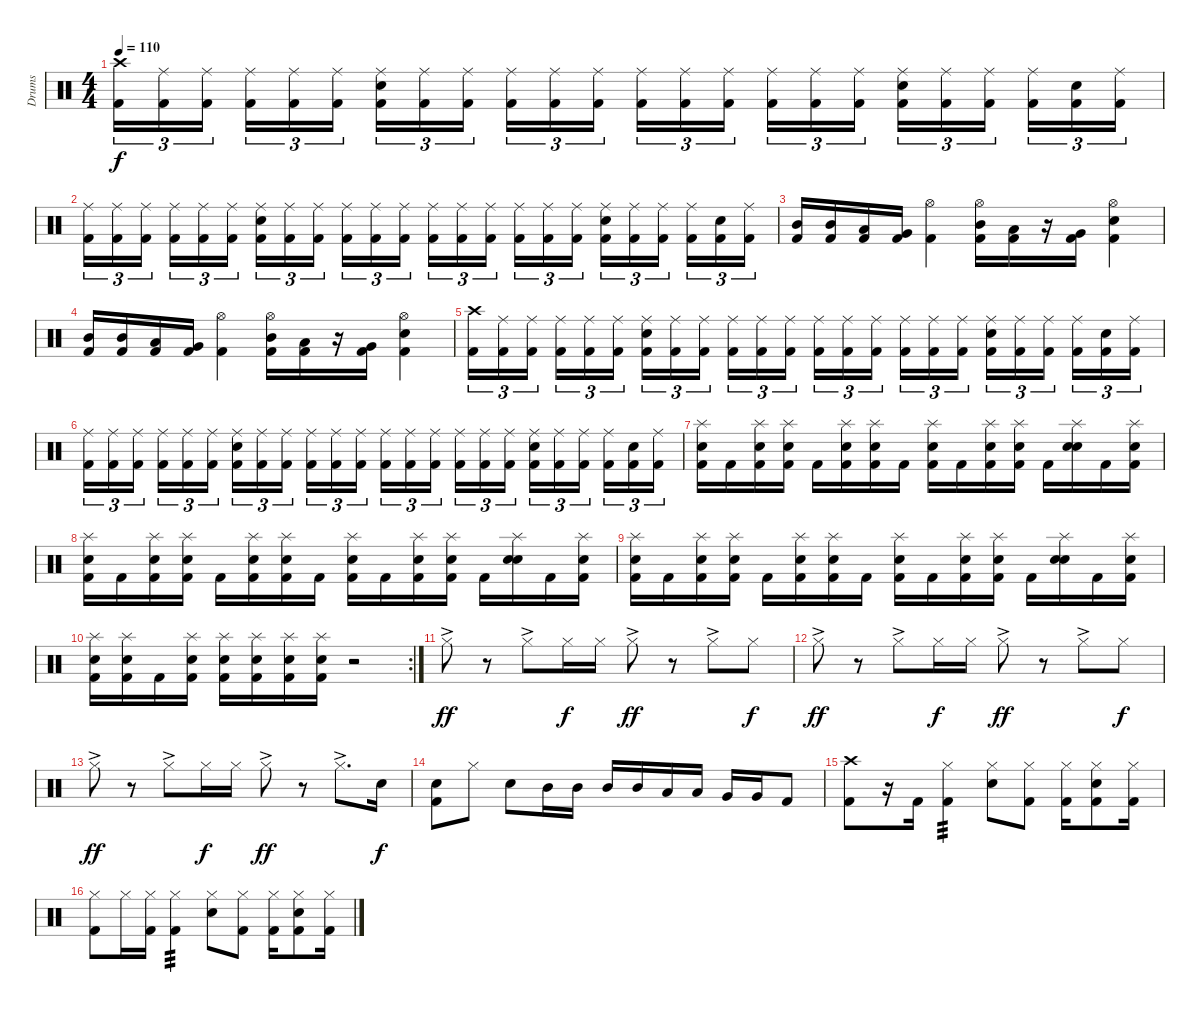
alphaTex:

\track ("Drums" "Drums") {instrument percussion}
\staff {score}
\articulation defaults
\ts (4 4)
\tempo 110
\clef neutral
\ks c
("Crash high (hit)" "Kick (hit) 2").16{tu (3 2) dy f} ("Ride (middle)" "Kick (hit) 2").16{tu (3 2)} ("Ride (middle)" "Kick (hit) 2").16{tu (3 2) beam splitsecondary} ("Ride (middle)" "Kick (hit) 2").16{tu (3 2)} ("Ride (middle)" "Kick (hit) 2").16{tu (3 2)} ("Ride (middle)" "Kick (hit) 2").16{tu (3 2)} ("Ride (middle)" "Snare (hit) 2" "Kick (hit) 2").16{tu (3 2)} ("Ride (middle)" "Kick (hit) 2").16{tu (3 2)} ("Ride (middle)" "Kick (hit) 2").16{tu (3 2) beam splitsecondary} ("Ride (middle)" "Kick (hit) 2").16{tu (3 2)} ("Ride (middle)" "Kick (hit) 2").16{tu (3 2)} ("Ride (middle)" "Kick (hit) 2").16{tu (3 2)} ("Ride (middle)" "Kick (hit) 2").16{tu (3 2)} ("Ride (middle)" "Kick (hit) 2").16{tu (3 2)} ("Ride (middle)" "Kick (hit) 2").16{tu (3 2) beam splitsecondary} ("Ride (middle)" "Kick (hit) 2").16{tu (3 2)} ("Ride (middle)" "Kick (hit) 2").16{tu (3 2)} ("Ride (middle)" "Kick (hit) 2").16{tu (3 2)} ("Ride (middle)" "Snare (hit) 2" "Kick (hit) 2").16{tu (3 2)} ("Ride (middle)" "Kick (hit) 2").16{tu (3 2)} ("Ride (middle)" "Kick (hit) 2").16{tu (3 2) beam splitsecondary} ("Ride (middle)" "Kick (hit) 2").16{tu (3 2)} ("Snare (hit)" "Kick (hit) 2").16{tu (3 2)} ("Ride (middle)" "Kick (hit) 2").16{tu (3 2)} |
("Ride (middle)" "Kick (hit) 2").16{tu (3 2)} ("Ride (middle)" "Kick (hit) 2").16{tu (3 2)} ("Ride (middle)" "Kick (hit) 2").16{tu (3 2) beam splitsecondary} ("Ride (middle)" "Kick (hit) 2").16{tu (3 2)} ("Ride (middle)" "Kick (hit) 2").16{tu (3 2)} ("Ride (middle)" "Kick (hit) 2").16{tu (3 2)} ("Ride (middle)" "Snare (hit) 2" "Kick (hit) 2").16{tu (3 2)} ("Ride (middle)" "Kick (hit) 2").16{tu (3 2)} ("Ride (middle)" "Kick (hit) 2").16{tu (3 2) beam splitsecondary} ("Ride (middle)" "Kick (hit) 2").16{tu (3 2)} ("Ride (middle)" "Kick (hit) 2").16{tu (3 2)} ("Ride (middle)" "Kick (hit) 2").16{tu (3 2)} ("Ride (middle)" "Kick (hit) 2").16{tu (3 2)} ("Ride (middle)" "Kick (hit) 2").16{tu (3 2)} ("Ride (middle)" "Kick (hit) 2").16{tu (3 2) beam splitsecondary} ("Ride (middle)" "Kick (hit) 2").16{tu (3 2)} ("Ride (middle)" "Kick (hit) 2").16{tu (3 2)} ("Ride (middle)" "Kick (hit) 2").16{tu (3 2)} ("Ride (middle)" "Snare (hit) 2" "Kick (hit) 2").16{tu (3 2)} ("Ride (middle)" "Kick (hit) 2").16{tu (3 2)} ("Ride (middle)" "Kick (hit) 2").16{tu (3 2) beam splitsecondary} ("Ride (middle)" "Kick (hit) 2").16{tu (3 2)} ("Snare (hit)" "Kick (hit) 2").16{tu (3 2)} ("Ride (middle)" "Kick (hit) 2").16{tu (3 2)} |
("Mid Tom (hit)" "Kick (hit) 2").16 ("Mid Tom (hit)" "Kick (hit) 2").16 ("Low Tom (hit)" "Kick (hit) 2").16 ("Very Low Tom (hit)" "Kick (hit) 2").16 ("Hi-Hat (open)" "Kick (hit) 2").4 ("Hi-Hat (open)" "Mid Tom (hit)" "Kick (hit) 2").16 ("Low Tom (hit)" "Kick (hit) 2").16 r.16 ("Very Low Tom (hit)" "Kick (hit) 2").16 ("Hi-Hat (open)" "Snare (hit) 2" "Kick (hit) 2").4 |
("Mid Tom (hit)" "Kick (hit) 2").16 ("Mid Tom (hit)" "Kick (hit) 2").16 ("Low Tom (hit)" "Kick (hit) 2").16 ("Very Low Tom (hit)" "Kick (hit) 2").16 ("Hi-Hat (open)" "Kick (hit) 2").4 ("Hi-Hat (open)" "Mid Tom (hit)" "Kick (hit) 2").16 ("Low Tom (hit)" "Kick (hit) 2").16 r.16 ("Very Low Tom (hit)" "Kick (hit) 2").16 ("Hi-Hat (open)" "Snare (hit) 2" "Kick (hit) 2").4 |
("Crash high (hit)" "Kick (hit) 2").16{tu (3 2)} ("Ride (middle)" "Kick (hit) 2").16{tu (3 2)} ("Ride (middle)" "Kick (hit) 2").16{tu (3 2) beam splitsecondary} ("Ride (middle)" "Kick (hit) 2").16{tu (3 2)} ("Ride (middle)" "Kick (hit) 2").16{tu (3 2)} ("Ride (middle)" "Kick (hit) 2").16{tu (3 2)} ("Ride (middle)" "Snare (hit) 2" "Kick (hit) 2").16{tu (3 2)} ("Ride (middle)" "Kick (hit) 2").16{tu (3 2)} ("Ride (middle)" "Kick (hit) 2").16{tu (3 2) beam splitsecondary} ("Ride (middle)" "Kick (hit) 2").16{tu (3 2)} ("Ride (middle)" "Kick (hit) 2").16{tu (3 2)} ("Ride (middle)" "Kick (hit) 2").16{tu (3 2)} ("Ride (middle)" "Kick (hit) 2").16{tu (3 2)} ("Ride (middle)" "Kick (hit) 2").16{tu (3 2)} ("Ride (middle)" "Kick (hit) 2").16{tu (3 2) beam splitsecondary} ("Ride (middle)" "Kick (hit) 2").16{tu (3 2)} ("Ride (middle)" "Kick (hit) 2").16{tu (3 2)} ("Ride (middle)" "Kick (hit) 2").16{tu (3 2)} ("Ride (middle)" "Snare (hit) 2" "Kick (hit) 2").16{tu (3 2)} ("Ride (middle)" "Kick (hit) 2").16{tu (3 2)} ("Ride (middle)" "Kick (hit) 2").16{tu (3 2) beam splitsecondary} ("Ride (middle)" "Kick (hit) 2").16{tu (3 2)} ("Snare (hit)" "Kick (hit) 2").16{tu (3 2)} ("Ride (middle)" "Kick (hit) 2").16{tu (3 2)} |
("Ride (middle)" "Kick (hit) 2").16{tu (3 2)} ("Ride (middle)" "Kick (hit) 2").16{tu (3 2)} ("Ride (middle)" "Kick (hit) 2").16{tu (3 2) beam splitsecondary} ("Ride (middle)" "Kick (hit) 2").16{tu (3 2)} ("Ride (middle)" "Kick (hit) 2").16{tu (3 2)} ("Ride (middle)" "Kick (hit) 2").16{tu (3 2)} ("Ride (middle)" "Snare (hit) 2" "Kick (hit) 2").16{tu (3 2)} ("Ride (middle)" "Kick (hit) 2").16{tu (3 2)} ("Ride (middle)" "Kick (hit) 2").16{tu (3 2) beam splitsecondary} ("Ride (middle)" "Kick (hit) 2").16{tu (3 2)} ("Ride (middle)" "Kick (hit) 2").16{tu (3 2)} ("Ride (middle)" "Kick (hit) 2").16{tu (3 2)} ("Ride (middle)" "Kick (hit) 2").16{tu (3 2)} ("Ride (middle)" "Kick (hit) 2").16{tu (3 2)} ("Ride (middle)" "Kick (hit) 2").16{tu (3 2) beam splitsecondary} ("Ride (middle)" "Kick (hit) 2").16{tu (3 2)} ("Ride (middle)" "Kick (hit) 2").16{tu (3 2)} ("Ride (middle)" "Kick (hit) 2").16{tu (3 2)} ("Ride (middle)" "Snare (hit) 2" "Kick (hit) 2").16{tu (3 2)} ("Ride (middle)" "Kick (hit) 2").16{tu (3 2)} ("Ride (middle)" "Kick (hit) 2").16{tu (3 2) beam splitsecondary} ("Ride (middle)" "Kick (hit) 2").16{tu (3 2)} ("Snare (hit)" "Kick (hit) 2").16{tu (3 2)} ("Ride (middle)" "Kick (hit) 2").16{tu (3 2)} |
("Splash (hit)" "Snare (hit) 2" "Kick (hit) 2").16 "Kick (hit) 2".16 ("Splash (hit)" "Snare (hit) 2" "Kick (hit) 2").16 ("Splash (hit)" "Snare (hit) 2" "Kick (hit) 2").16 "Kick (hit) 2".16 ("Splash (hit)" "Snare (hit) 2" "Kick (hit) 2").16 ("Splash (hit)" "Snare (hit) 2" "Kick (hit) 2").16 "Kick (hit) 2".16 ("Splash (hit)" "Snare (hit) 2" "Kick (hit) 2").16 "Kick (hit) 2".16 ("Splash (hit)" "Snare (hit) 2" "Kick (hit) 2").16 ("Splash (hit)" "Snare (hit) 2" "Kick (hit) 2").16 "Kick (hit) 2".16 ("Splash (hit)" "Snare (hit) 2" "Snare (hit) 2").16 "Kick (hit) 2".16 ("Splash (hit)" "Snare (hit) 2" "Kick (hit) 2").16 |
("Splash (hit)" "Snare (hit) 2" "Kick (hit) 2").16 "Kick (hit) 2".16 ("Splash (hit)" "Snare (hit) 2" "Kick (hit) 2").16 ("Splash (hit)" "Snare (hit) 2" "Kick (hit) 2").16 "Kick (hit) 2".16 ("Splash (hit)" "Snare (hit) 2" "Kick (hit) 2").16 ("Splash (hit)" "Snare (hit) 2" "Kick (hit) 2").16 "Kick (hit) 2".16 ("Splash (hit)" "Snare (hit) 2" "Kick (hit) 2").16 "Kick (hit) 2".16 ("Splash (hit)" "Snare (hit) 2" "Kick (hit) 2").16 ("Splash (hit)" "Snare (hit) 2" "Kick (hit) 2").16 "Kick (hit) 2".16 ("Splash (hit)" "Snare (hit) 2" "Snare (hit) 2").16 "Kick (hit) 2".16 ("Splash (hit)" "Snare (hit) 2" "Kick (hit) 2").16 |
("Splash (hit)" "Snare (hit) 2" "Kick (hit) 2").16 "Kick (hit) 2".16 ("Splash (hit)" "Snare (hit) 2" "Kick (hit) 2").16 ("Splash (hit)" "Snare (hit) 2" "Kick (hit) 2").16 "Kick (hit) 2".16 ("Splash (hit)" "Snare (hit) 2" "Kick (hit) 2").16 ("Splash (hit)" "Snare (hit) 2" "Kick (hit) 2").16 "Kick (hit) 2".16 ("Splash (hit)" "Snare (hit) 2" "Kick (hit) 2").16 "Kick (hit) 2".16 ("Splash (hit)" "Snare (hit) 2" "Kick (hit) 2").16 ("Splash (hit)" "Snare (hit) 2" "Kick (hit) 2").16 "Kick (hit) 2".16 ("Splash (hit)" "Snare (hit) 2" "Snare (hit) 2").16 "Kick (hit) 2".16 ("Splash (hit)" "Snare (hit) 2" "Kick (hit) 2").16 |
\rc 2
("Splash (hit)" "Snare (hit) 2" "Kick (hit) 2").16 ("Splash (hit)" "Snare (hit) 2" "Kick (hit) 2").16 "Kick (hit) 2".16 ("Splash (hit)" "Snare (hit) 2" "Kick (hit) 2").16 ("Splash (hit)" "Snare (hit) 2" "Kick (hit) 2").16 ("Splash (hit)" "Snare (hit) 2" "Kick (hit) 2").16 ("Splash (hit)" "Snare (hit) 2" "Kick (hit) 2").16 ("Splash (hit)" "Snare (hit) 2" "Kick (hit) 2").16 r.2 |
"Hi-Hat (closed)"{ac}.8{dy ff} r.8 "Hi-Hat (closed)"{ac}.8 "Hi-Hat (closed)".16{dy f} "Hi-Hat (closed)".16 "Hi-Hat (closed)"{ac}.8{dy ff} r.8 "Hi-Hat (closed)"{ac}.8 "Hi-Hat (closed)".8{dy f} |
"Hi-Hat (closed)"{ac}.8{dy ff} r.8 "Hi-Hat (closed)"{ac}.8 "Hi-Hat (closed)".16{dy f} "Hi-Hat (closed)".16 "Hi-Hat (closed)"{ac}.8{dy ff} r.8 "Hi-Hat (closed)"{ac}.8 "Hi-Hat (closed)".8{dy f} |
"Hi-Hat (closed)"{ac}.8{dy ff} r.8 "Hi-Hat (closed)"{ac}.8 "Hi-Hat (closed)".16{dy f} "Hi-Hat (closed)".16 "Hi-Hat (closed)"{ac}.8{dy ff} r.8 "Hi-Hat (closed)"{ac}.8{d} "Snare (hit) 2".16{dy f} |
("Snare (hit) 2" "Kick (hit) 2").8 "Hi-Hat (closed)".8 "Snare (hit) 2".8 "Mid Tom (hit)".16 "Mid Tom (hit)".16 "Mid Tom (hit)".16 "Mid Tom (hit)".16 "Low Tom (hit)".16 "Low Tom (hit)".16 "Very Low Tom (hit)".16 "Very Low Tom (hit)".16 "Kick (hit) 2".8 |
("Crash high (hit)" "Kick (hit) 2").8 r.16 "Kick (hit) 2".16 ("Hi-Hat (closed)" "Kick (hit) 2").4{tp 3} ("Hi-Hat (closed)" "Snare (hit) 2").8 ("Hi-Hat (closed)" "Kick (hit) 2").8 ("Hi-Hat (closed)" "Kick (hit) 2").16 ("Hi-Hat (closed)" "Snare (hit) 2" "Kick (hit) 2").8 ("Hi-Hat (closed)" "Kick (hit) 2").16 |
("Hi-Hat (closed)" "Kick (hit) 2").8 "Hi-Hat (closed)".16 ("Hi-Hat (closed)" "Kick (hit) 2").16 ("Hi-Hat (closed)" "Kick (hit) 2").4{tp 3} ("Hi-Hat (closed)" "Snare (hit) 2").8 ("Hi-Hat (closed)" "Kick (hit) 2").8 ("Hi-Hat (closed)" "Kick (hit) 2").16 ("Hi-Hat (closed)" "Snare (hit) 2" "Kick (hit) 2").8 ("Hi-Hat (closed)" "Kick (hit) 2").16
